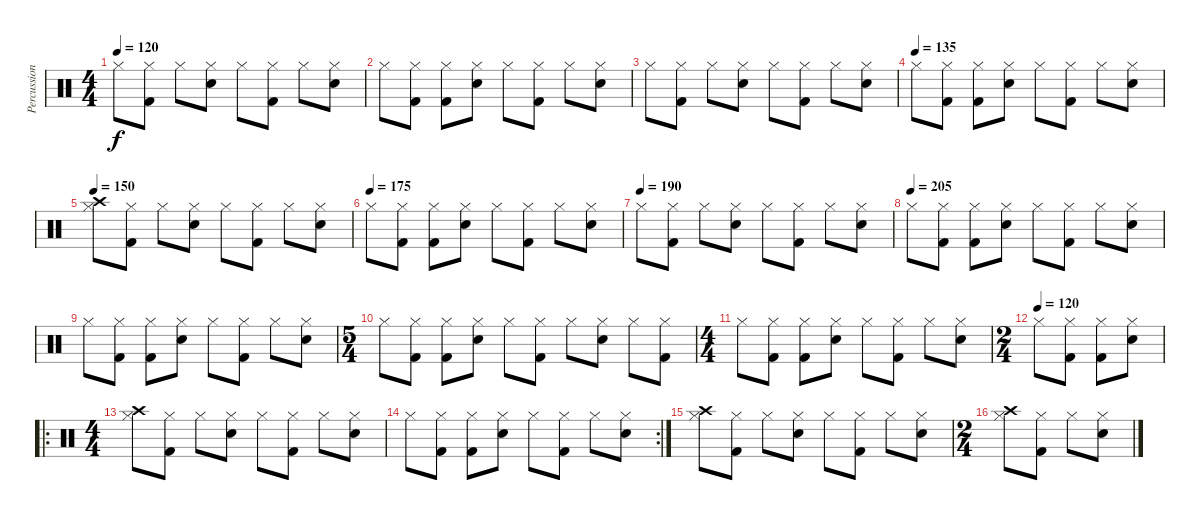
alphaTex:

\track ("Percussion" "Percussion") {instrument percussion}
\staff {score}
\articulation defaults
\ts (4 4)
\tempo 120
\clef neutral
\ks c "Hi-Hat (closed)".8{dy f}
("Kick (hit) 2" "Hi-Hat (closed)").8 "Hi-Hat (closed)".8 ("Electric Snare (hit)" "Hi-Hat (closed)").8 "Hi-Hat (closed)".8 ("Kick (hit) 2" "Hi-Hat (closed)").8 "Hi-Hat (closed)".8 ("Electric Snare (hit)" "Hi-Hat (closed)").8 |
"Hi-Hat (closed)".8 ("Kick (hit) 2" "Hi-Hat (closed)").8 ("Hi-Hat (closed)" "Kick (hit) 2").8 ("Electric Snare (hit)" "Hi-Hat (closed)").8 "Hi-Hat (closed)".8 ("Kick (hit) 2" "Hi-Hat (closed)").8 "Hi-Hat (closed)".8 ("Electric Snare (hit)" "Hi-Hat (closed)").8 |
"Hi-Hat (closed)".8 ("Kick (hit) 2" "Hi-Hat (closed)").8 "Hi-Hat (closed)".8 ("Electric Snare (hit)" "Hi-Hat (closed)").8 "Hi-Hat (closed)".8 ("Kick (hit) 2" "Hi-Hat (closed)").8 "Hi-Hat (closed)".8 ("Electric Snare (hit)" "Hi-Hat (closed)").8 |
\tempo (135)
"Hi-Hat (closed)".8 ("Kick (hit) 2" "Hi-Hat (closed)").8 ("Hi-Hat (closed)" "Kick (hit) 2").8 ("Electric Snare (hit)" "Hi-Hat (closed)").8 "Hi-Hat (closed)".8 ("Kick (hit) 2" "Hi-Hat (closed)").8 "Hi-Hat (closed)".8 ("Electric Snare (hit)" "Hi-Hat (closed)").8 |
\tempo 150
("Hi-Hat (closed)" "Crash high (hit)").8 ("Kick (hit) 2" "Hi-Hat (closed)").8 "Hi-Hat (closed)".8 ("Electric Snare (hit)" "Hi-Hat (closed)").8 "Hi-Hat (closed)".8 ("Kick (hit) 2" "Hi-Hat (closed)").8 "Hi-Hat (closed)".8 ("Electric Snare (hit)" "Hi-Hat (closed)").8 |
\tempo (175)
"Hi-Hat (closed)".8 ("Kick (hit) 2" "Hi-Hat (closed)").8 ("Hi-Hat (closed)" "Kick (hit) 2").8 ("Electric Snare (hit)" "Hi-Hat (closed)").8 "Hi-Hat (closed)".8 ("Kick (hit) 2" "Hi-Hat (closed)").8 "Hi-Hat (closed)".8 ("Electric Snare (hit)" "Hi-Hat (closed)").8 |
\tempo (190)
"Hi-Hat (closed)".8 ("Kick (hit) 2" "Hi-Hat (closed)").8 "Hi-Hat (closed)".8 ("Electric Snare (hit)" "Hi-Hat (closed)").8 "Hi-Hat (closed)".8 ("Kick (hit) 2" "Hi-Hat (closed)").8 "Hi-Hat (closed)".8 ("Electric Snare (hit)" "Hi-Hat (closed)").8 |
\tempo (205)
"Hi-Hat (closed)".8 ("Kick (hit) 2" "Hi-Hat (closed)").8 ("Hi-Hat (closed)" "Kick (hit) 2").8 ("Electric Snare (hit)" "Hi-Hat (closed)").8 "Hi-Hat (closed)".8 ("Kick (hit) 2" "Hi-Hat (closed)").8 "Hi-Hat (closed)".8 ("Electric Snare (hit)" "Hi-Hat (closed)").8 |
"Hi-Hat (closed)".8 ("Kick (hit) 2" "Hi-Hat (closed)").8 ("Hi-Hat (closed)" "Kick (hit) 2").8 ("Electric Snare (hit)" "Hi-Hat (closed)").8 "Hi-Hat (closed)".8 ("Kick (hit) 2" "Hi-Hat (closed)").8 "Hi-Hat (closed)".8 ("Electric Snare (hit)" "Hi-Hat (closed)").8 |
\ts (5 4)
"Hi-Hat (closed)".8 ("Kick (hit) 2" "Hi-Hat (closed)").8 ("Hi-Hat (closed)" "Kick (hit) 2").8 ("Electric Snare (hit)" "Hi-Hat (closed)").8 "Hi-Hat (closed)".8 ("Kick (hit) 2" "Hi-Hat (closed)").8 "Hi-Hat (closed)".8 ("Electric Snare (hit)" "Hi-Hat (closed)").8 "Hi-Hat (closed)".8 ("Kick (hit) 2" "Hi-Hat (closed)").8 |
\ts (4 4)
"Hi-Hat (closed)".8 ("Kick (hit) 2" "Hi-Hat (closed)").8 ("Hi-Hat (closed)" "Kick (hit) 2").8 ("Electric Snare (hit)" "Hi-Hat (closed)").8 "Hi-Hat (closed)".8 ("Kick (hit) 2" "Hi-Hat (closed)").8 "Hi-Hat (closed)".8 ("Electric Snare (hit)" "Hi-Hat (closed)").8 |
\ts (2 4)
\tempo (120)
"Hi-Hat (closed)".8 ("Kick (hit) 2" "Hi-Hat (closed)").8 ("Hi-Hat (closed)" "Kick (hit) 2").8 ("Electric Snare (hit)" "Hi-Hat (closed)").8 |
\ro
\ts (4 4)
("Hi-Hat (closed)" "Crash high (hit)").8 ("Kick (hit) 2" "Hi-Hat (closed)").8 "Hi-Hat (closed)".8 ("Electric Snare (hit)" "Hi-Hat (closed)").8 "Hi-Hat (closed)".8 ("Kick (hit) 2" "Hi-Hat (closed)").8 "Hi-Hat (closed)".8 ("Electric Snare (hit)" "Hi-Hat (closed)").8 |
\rc 2 "Hi-Hat (closed)".8
("Kick (hit) 2" "Hi-Hat (closed)").8 ("Hi-Hat (closed)" "Kick (hit) 2").8 ("Electric Snare (hit)" "Hi-Hat (closed)").8 "Hi-Hat (closed)".8 ("Kick (hit) 2" "Hi-Hat (closed)").8 "Hi-Hat (closed)".8 ("Electric Snare (hit)" "Hi-Hat (closed)").8 |
("Hi-Hat (closed)" "Crash high (hit)").8 ("Kick (hit) 2" "Hi-Hat (closed)").8 "Hi-Hat (closed)".8 ("Electric Snare (hit)" "Hi-Hat (closed)").8 "Hi-Hat (closed)".8 ("Kick (hit) 2" "Hi-Hat (closed)").8 "Hi-Hat (closed)".8 ("Electric Snare (hit)" "Hi-Hat (closed)").8 |
\ts (2 4)
("Hi-Hat (closed)" "Crash high (hit)").8 ("Kick (hit) 2" "Hi-Hat (closed)").8 "Hi-Hat (closed)".8 ("Electric Snare (hit)" "Hi-Hat (closed)").8
